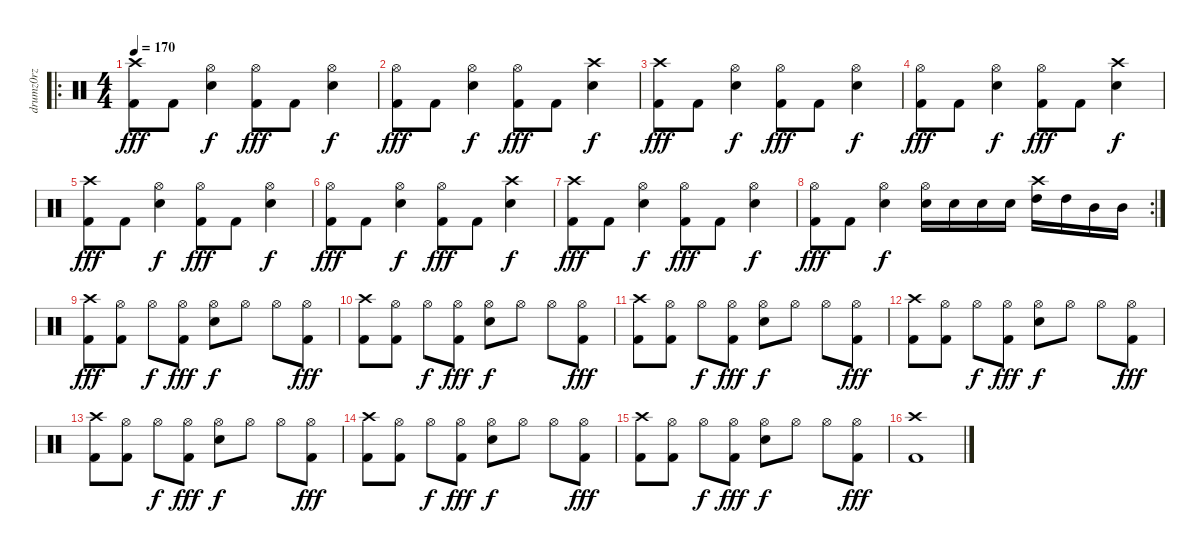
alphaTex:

\track ("drumz0rz" "drumz0rz") {instrument percussion}
\staff {score}
\articulation defaults
\ro
\ts (4 4)
\tempo 170
\clef neutral
\ks c
("Crash high (hit)" "Kick (hit) 2").8{dy fff} "Kick (hit) 2".8 ("Hi-Hat (open)" "Electric Snare (hit)").4{dy f} ("Hi-Hat (open)" "Kick (hit) 2").8{dy fff} "Kick (hit) 2".8 ("Hi-Hat (open)" "Electric Snare (hit)").4{dy f} |
("Hi-Hat (open)" "Kick (hit) 2").8{dy fff} "Kick (hit) 2".8 ("Hi-Hat (open)" "Electric Snare (hit)").4{dy f} ("Hi-Hat (open)" "Kick (hit) 2").8{dy fff} "Kick (hit) 2".8 ("Crash high (hit)" "Electric Snare (hit)").4{dy f} |
("Crash high (hit)" "Kick (hit) 2").8{dy fff} "Kick (hit) 2".8 ("Hi-Hat (open)" "Electric Snare (hit)").4{dy f} ("Hi-Hat (open)" "Kick (hit) 2").8{dy fff} "Kick (hit) 2".8 ("Hi-Hat (open)" "Electric Snare (hit)").4{dy f} |
("Hi-Hat (open)" "Kick (hit) 2").8{dy fff} "Kick (hit) 2".8 ("Hi-Hat (open)" "Electric Snare (hit)").4{dy f} ("Hi-Hat (open)" "Kick (hit) 2").8{dy fff} "Kick (hit) 2".8 ("Crash high (hit)" "Electric Snare (hit)").4{dy f} |
("Crash high (hit)" "Kick (hit) 2").8{dy fff} "Kick (hit) 2".8 ("Hi-Hat (open)" "Electric Snare (hit)").4{dy f} ("Hi-Hat (open)" "Kick (hit) 2").8{dy fff} "Kick (hit) 2".8 ("Hi-Hat (open)" "Electric Snare (hit)").4{dy f} |
("Hi-Hat (open)" "Kick (hit) 2").8{dy fff} "Kick (hit) 2".8 ("Hi-Hat (open)" "Electric Snare (hit)").4{dy f} ("Hi-Hat (open)" "Kick (hit) 2").8{dy fff} "Kick (hit) 2".8 ("Crash high (hit)" "Electric Snare (hit)").4{dy f} |
("Crash high (hit)" "Kick (hit) 2").8{dy fff} "Kick (hit) 2".8 ("Hi-Hat (open)" "Electric Snare (hit)").4{dy f} ("Hi-Hat (open)" "Kick (hit) 2").8{dy fff} "Kick (hit) 2".8 ("Hi-Hat (open)" "Electric Snare (hit)").4{dy f} |
\rc 2
("Hi-Hat (open)" "Kick (hit) 2").8{dy fff} "Kick (hit) 2".8 ("Hi-Hat (open)" "Electric Snare (hit)").4{dy f} ("Hi-Hat (open)" "Electric Snare (hit)").16 "Electric Snare (hit)".16 "Electric Snare (hit)".16 "Electric Snare (hit)".16 ("Crash high (hit)" "High Tom (hit)").16 "High Tom (hit)".16 "Mid Tom (hit)".16 "Mid Tom (hit)".16 |
("Crash high (hit)" "Kick (hit) 2").8{dy fff} ("Hi-Hat (open)" "Kick (hit) 2").8 "Hi-Hat (open)".8{dy f} ("Hi-Hat (open)" "Kick (hit) 2").8{dy fff} ("Hi-Hat (open)" "Electric Snare (hit)").8{dy f} "Hi-Hat (open)".8 "Hi-Hat (open)".8 ("Hi-Hat (open)" "Kick (hit) 2").8{dy fff} |
("Crash high (hit)" "Kick (hit) 2").8 ("Hi-Hat (open)" "Kick (hit) 2").8 "Hi-Hat (open)".8{dy f} ("Hi-Hat (open)" "Kick (hit) 2").8{dy fff} ("Hi-Hat (open)" "Electric Snare (hit)").8{dy f} "Hi-Hat (open)".8 "Hi-Hat (open)".8 ("Hi-Hat (open)" "Kick (hit) 2").8{dy fff} |
("Crash high (hit)" "Kick (hit) 2").8 ("Hi-Hat (open)" "Kick (hit) 2").8 "Hi-Hat (open)".8{dy f} ("Hi-Hat (open)" "Kick (hit) 2").8{dy fff} ("Hi-Hat (open)" "Electric Snare (hit)").8{dy f} "Hi-Hat (open)".8 "Hi-Hat (open)".8 ("Hi-Hat (open)" "Kick (hit) 2").8{dy fff} |
("Crash high (hit)" "Kick (hit) 2").8 ("Hi-Hat (open)" "Kick (hit) 2").8 "Hi-Hat (open)".8{dy f} ("Hi-Hat (open)" "Kick (hit) 2").8{dy fff} ("Hi-Hat (open)" "Electric Snare (hit)").8{dy f} "Hi-Hat (open)".8 "Hi-Hat (open)".8 ("Hi-Hat (open)" "Kick (hit) 2").8{dy fff} |
("Crash high (hit)" "Kick (hit) 2").8 ("Hi-Hat (open)" "Kick (hit) 2").8 "Hi-Hat (open)".8{dy f} ("Hi-Hat (open)" "Kick (hit) 2").8{dy fff} ("Hi-Hat (open)" "Electric Snare (hit)").8{dy f} "Hi-Hat (open)".8 "Hi-Hat (open)".8 ("Hi-Hat (open)" "Kick (hit) 2").8{dy fff} |
("Crash high (hit)" "Kick (hit) 2").8 ("Hi-Hat (open)" "Kick (hit) 2").8 "Hi-Hat (open)".8{dy f} ("Hi-Hat (open)" "Kick (hit) 2").8{dy fff} ("Hi-Hat (open)" "Electric Snare (hit)").8{dy f} "Hi-Hat (open)".8 "Hi-Hat (open)".8 ("Hi-Hat (open)" "Kick (hit) 2").8{dy fff} |
("Crash high (hit)" "Kick (hit) 2").8 ("Hi-Hat (open)" "Kick (hit) 2").8 "Hi-Hat (open)".8{dy f} ("Hi-Hat (open)" "Kick (hit) 2").8{dy fff} ("Hi-Hat (open)" "Electric Snare (hit)").8{dy f} "Hi-Hat (open)".8 "Hi-Hat (open)".8 ("Hi-Hat (open)" "Kick (hit) 2").8{dy fff} |
("Crash high (hit)" "Kick (hit) 2").1
